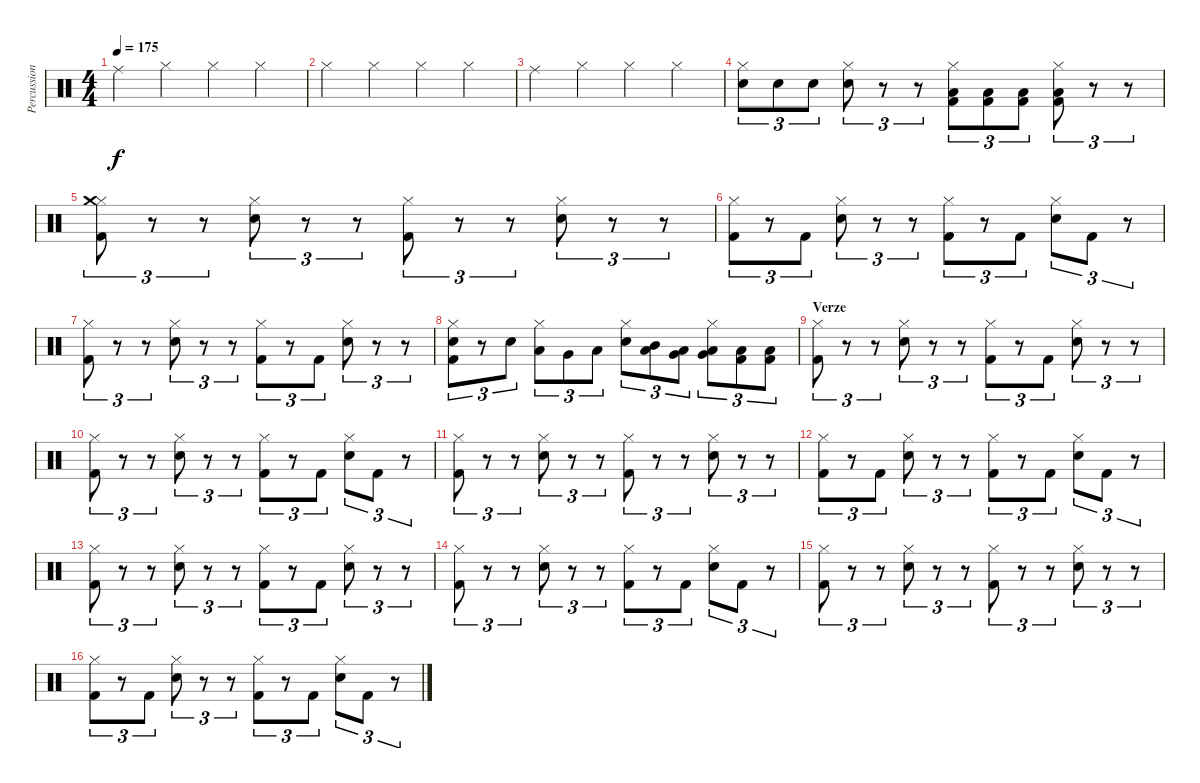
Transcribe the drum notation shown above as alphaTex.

\track ("Percussion" "Percussion") {instrument percussion}
\staff {score}
\articulation defaults
\ts (4 4)
\tempo 175
\clef neutral
\ks c "Ride (middle)".4{dy f} "Hi-Hat (closed)".4 "Hi-Hat (closed)".4 "Hi-Hat (closed)".4
|
"Hi-Hat (closed)".4 "Hi-Hat (closed)".4 "Hi-Hat (closed)".4 "Hi-Hat (closed)".4 |
"Ride (middle)".4 "Hi-Hat (closed)".4 "Hi-Hat (closed)".4 "Hi-Hat (closed)".4 |
("Hi-Hat (closed)" "Electric Snare (hit)").8{tu (3 2)} "Electric Snare (hit)".8{tu (3 2)} "Electric Snare (hit)".8{tu (3 2)} ("Hi-Hat (closed)" "Electric Snare (hit)").8{tu (3 2)} r.8{tu (3 2)} r.8{tu (3 2)} ("Hi-Hat (closed)" "Kick (hit) 2" "Low Tom (hit)").8{tu (3 2)} ("Kick (hit) 2" "Low Tom (hit)").8{tu (3 2)} ("Kick (hit) 2" "Low Tom (hit)").8{tu (3 2)} ("Hi-Hat (closed)" "Kick (hit) 2" "Low Tom (hit)").8{tu (3 2)} r.8{tu (3 2)} r.8{tu (3 2)} |
("Hi-Hat (closed)" "Crash medium (hit)" "Kick (hit) 2").8{tu (3 2)} r.8{tu (3 2)} r.8{tu (3 2)} ("Hi-Hat (closed)" "Electric Snare (hit)").8{tu (3 2)} r.8{tu (3 2)} r.8{tu (3 2)} ("Hi-Hat (closed)" "Kick (hit) 2").8{tu (3 2)} r.8{tu (3 2)} r.8{tu (3 2)} ("Hi-Hat (closed)" "Electric Snare (hit)").8{tu (3 2)} r.8{tu (3 2)} r.8{tu (3 2)} |
("Hi-Hat (closed)" "Kick (hit) 2").8{tu (3 2)} r.8{tu (3 2)} "Kick (hit) 2".8{tu (3 2)} ("Hi-Hat (closed)" "Electric Snare (hit)").8{tu (3 2)} r.8{tu (3 2)} r.8{tu (3 2)} ("Hi-Hat (closed)" "Kick (hit) 2").8{tu (3 2)} r.8{tu (3 2)} "Kick (hit) 2".8{tu (3 2)} ("Hi-Hat (closed)" "Electric Snare (hit)").8{tu (3 2)} "Kick (hit) 2".8{tu (3 2)} r.8{tu (3 2)} |
("Hi-Hat (closed)" "Kick (hit) 2").8{tu (3 2)} r.8{tu (3 2)} r.8{tu (3 2)} ("Hi-Hat (closed)" "Electric Snare (hit)").8{tu (3 2)} r.8{tu (3 2)} r.8{tu (3 2)} ("Hi-Hat (closed)" "Kick (hit) 2").8{tu (3 2)} r.8{tu (3 2)} "Kick (hit) 2".8{tu (3 2)} ("Hi-Hat (closed)" "Electric Snare (hit)").8{tu (3 2)} r.8{tu (3 2)} r.8{tu (3 2)} |
("Hi-Hat (closed)" "Kick (hit) 2" "Electric Snare (hit)").8{tu (3 2)} r.8{tu (3 2)} "Electric Snare (hit)".8{tu (3 2)} ("Hi-Hat (closed)" "Low Tom (hit)").8{tu (3 2)} "Very Low Tom (hit)".8{tu (3 2)} "Low Floor Tom (hit)".8{tu (3 2)} ("Hi-Hat (closed)" "Electric Snare (hit)").8{tu (3 2)} ("Mid Tom (hit)" "Low Tom (hit)").8{tu (3 2)} ("Low Tom (hit)" "Very Low Tom (hit)").8{tu (3 2)} ("Hi-Hat (closed)" "Very Low Tom (hit)" "Low Floor Tom (hit)").8{tu (3 2)} ("Low Floor Tom (hit)" "Kick (hit) 2").8{tu (3 2)} ("Low Floor Tom (hit)" "Kick (hit) 2").8{tu (3 2)} |
\section ("" "Verze")
("Hi-Hat (closed)" "Kick (hit) 2").8{tu (3 2)} r.8{tu (3 2)} r.8{tu (3 2)} ("Hi-Hat (closed)" "Electric Snare (hit)").8{tu (3 2)} r.8{tu (3 2)} r.8{tu (3 2)} ("Hi-Hat (closed)" "Kick (hit) 2").8{tu (3 2)} r.8{tu (3 2)} "Kick (hit) 2".8{tu (3 2)} ("Hi-Hat (closed)" "Electric Snare (hit)").8{tu (3 2)} r.8{tu (3 2)} r.8{tu (3 2)} |
("Hi-Hat (closed)" "Kick (hit) 2").8{tu (3 2)} r.8{tu (3 2)} r.8{tu (3 2)} ("Hi-Hat (closed)" "Electric Snare (hit)").8{tu (3 2)} r.8{tu (3 2)} r.8{tu (3 2)} ("Hi-Hat (closed)" "Kick (hit) 2").8{tu (3 2)} r.8{tu (3 2)} "Kick (hit) 2".8{tu (3 2)} ("Hi-Hat (closed)" "Electric Snare (hit)").8{tu (3 2)} "Kick (hit) 2".8{tu (3 2)} r.8{tu (3 2)} |
("Hi-Hat (closed)" "Kick (hit) 2").8{tu (3 2)} r.8{tu (3 2)} r.8{tu (3 2)} ("Hi-Hat (closed)" "Electric Snare (hit)").8{tu (3 2)} r.8{tu (3 2)} r.8{tu (3 2)} ("Hi-Hat (closed)" "Kick (hit) 2").8{tu (3 2)} r.8{tu (3 2)} r.8{tu (3 2)} ("Hi-Hat (closed)" "Electric Snare (hit)").8{tu (3 2)} r.8{tu (3 2)} r.8{tu (3 2)} |
("Hi-Hat (closed)" "Kick (hit) 2").8{tu (3 2)} r.8{tu (3 2)} "Kick (hit) 2".8{tu (3 2)} ("Hi-Hat (closed)" "Electric Snare (hit)").8{tu (3 2)} r.8{tu (3 2)} r.8{tu (3 2)} ("Hi-Hat (closed)" "Kick (hit) 2").8{tu (3 2)} r.8{tu (3 2)} "Kick (hit) 2".8{tu (3 2)} ("Hi-Hat (closed)" "Electric Snare (hit)").8{tu (3 2)} "Kick (hit) 2".8{tu (3 2)} r.8{tu (3 2)} |
("Hi-Hat (closed)" "Kick (hit) 2").8{tu (3 2)} r.8{tu (3 2)} r.8{tu (3 2)} ("Hi-Hat (closed)" "Electric Snare (hit)").8{tu (3 2)} r.8{tu (3 2)} r.8{tu (3 2)} ("Hi-Hat (closed)" "Kick (hit) 2").8{tu (3 2)} r.8{tu (3 2)} "Kick (hit) 2".8{tu (3 2)} ("Hi-Hat (closed)" "Electric Snare (hit)").8{tu (3 2)} r.8{tu (3 2)} r.8{tu (3 2)} |
("Hi-Hat (closed)" "Kick (hit) 2").8{tu (3 2)} r.8{tu (3 2)} r.8{tu (3 2)} ("Hi-Hat (closed)" "Electric Snare (hit)").8{tu (3 2)} r.8{tu (3 2)} r.8{tu (3 2)} ("Hi-Hat (closed)" "Kick (hit) 2").8{tu (3 2)} r.8{tu (3 2)} "Kick (hit) 2".8{tu (3 2)} ("Hi-Hat (closed)" "Electric Snare (hit)").8{tu (3 2)} "Kick (hit) 2".8{tu (3 2)} r.8{tu (3 2)} |
("Hi-Hat (closed)" "Kick (hit) 2").8{tu (3 2)} r.8{tu (3 2)} r.8{tu (3 2)} ("Hi-Hat (closed)" "Electric Snare (hit)").8{tu (3 2)} r.8{tu (3 2)} r.8{tu (3 2)} ("Hi-Hat (closed)" "Kick (hit) 2").8{tu (3 2)} r.8{tu (3 2)} r.8{tu (3 2)} ("Hi-Hat (closed)" "Electric Snare (hit)").8{tu (3 2)} r.8{tu (3 2)} r.8{tu (3 2)} |
("Hi-Hat (closed)" "Kick (hit) 2").8{tu (3 2)} r.8{tu (3 2)} "Kick (hit) 2".8{tu (3 2)} ("Hi-Hat (closed)" "Electric Snare (hit)").8{tu (3 2)} r.8{tu (3 2)} r.8{tu (3 2)} ("Hi-Hat (closed)" "Kick (hit) 2").8{tu (3 2)} r.8{tu (3 2)} "Kick (hit) 2".8{tu (3 2)} ("Hi-Hat (closed)" "Electric Snare (hit)").8{tu (3 2)} "Kick (hit) 2".8{tu (3 2)} r.8{tu (3 2)}
